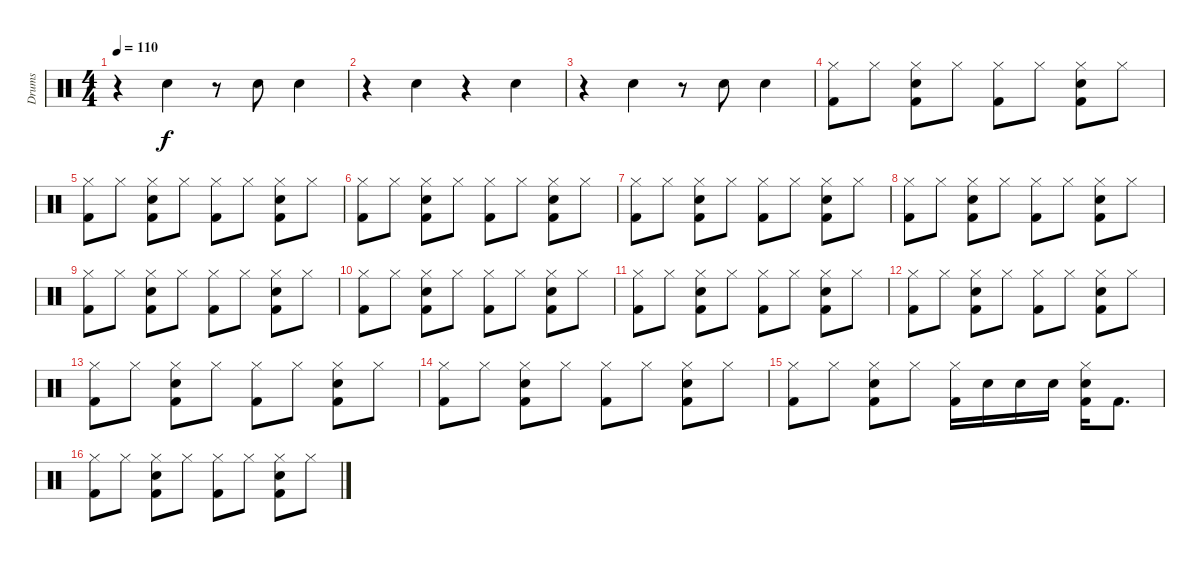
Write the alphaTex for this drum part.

\track ("Drums" "Drums") {instrument percussion}
\staff {score}
\articulation defaults
\ts (4 4)
\tempo 110
\clef neutral
\ks c
r.4{dy f} "Hand Clap (hit)".4 r.8 "Hand Clap (hit)".8 "Hand Clap (hit)".4 |
r.4 "Hand Clap (hit)".4 r.4 "Hand Clap (hit)".4 |
r.4 "Hand Clap (hit)".4 r.8 "Hand Clap (hit)".8 "Hand Clap (hit)".4 |
("Hi-Hat (closed)" "Kick (hit) 2").8 "Hi-Hat (closed)".8 ("Hi-Hat (closed)" "Snare (hit) 2" "Kick (hit) 2").8 "Hi-Hat (closed)".8 ("Hi-Hat (closed)" "Kick (hit) 2").8 "Hi-Hat (closed)".8 ("Hi-Hat (closed)" "Snare (hit) 2" "Kick (hit) 2").8 "Hi-Hat (closed)".8 |
("Hi-Hat (closed)" "Kick (hit) 2").8 "Hi-Hat (closed)".8 ("Hi-Hat (closed)" "Snare (hit) 2" "Kick (hit) 2").8 "Hi-Hat (closed)".8 ("Hi-Hat (closed)" "Kick (hit) 2").8 "Hi-Hat (closed)".8 ("Hi-Hat (closed)" "Snare (hit) 2" "Kick (hit) 2").8 "Hi-Hat (closed)".8 |
("Hi-Hat (closed)" "Kick (hit) 2").8 "Hi-Hat (closed)".8 ("Hi-Hat (closed)" "Snare (hit) 2" "Kick (hit) 2").8 "Hi-Hat (closed)".8 ("Hi-Hat (closed)" "Kick (hit) 2").8 "Hi-Hat (closed)".8 ("Hi-Hat (closed)" "Snare (hit) 2" "Kick (hit) 2").8 "Hi-Hat (closed)".8 |
("Hi-Hat (closed)" "Kick (hit) 2").8 "Hi-Hat (closed)".8 ("Hi-Hat (closed)" "Snare (hit) 2" "Kick (hit) 2").8 "Hi-Hat (closed)".8 ("Hi-Hat (closed)" "Kick (hit) 2").8 "Hi-Hat (closed)".8 ("Hi-Hat (closed)" "Snare (hit) 2" "Kick (hit) 2").8 "Hi-Hat (closed)".8 |
("Hi-Hat (closed)" "Kick (hit) 2").8 "Hi-Hat (closed)".8 ("Hi-Hat (closed)" "Snare (hit) 2" "Kick (hit) 2").8 "Hi-Hat (closed)".8 ("Hi-Hat (closed)" "Kick (hit) 2").8 "Hi-Hat (closed)".8 ("Hi-Hat (closed)" "Snare (hit) 2" "Kick (hit) 2").8 "Hi-Hat (closed)".8 |
("Hi-Hat (closed)" "Kick (hit) 2").8 "Hi-Hat (closed)".8 ("Hi-Hat (closed)" "Snare (hit) 2" "Kick (hit) 2").8 "Hi-Hat (closed)".8 ("Hi-Hat (closed)" "Kick (hit) 2").8 "Hi-Hat (closed)".8 ("Hi-Hat (closed)" "Snare (hit) 2" "Kick (hit) 2").8 "Hi-Hat (closed)".8 |
("Hi-Hat (closed)" "Kick (hit) 2").8 "Hi-Hat (closed)".8 ("Hi-Hat (closed)" "Snare (hit) 2" "Kick (hit) 2").8 "Hi-Hat (closed)".8 ("Hi-Hat (closed)" "Kick (hit) 2").8 "Hi-Hat (closed)".8 ("Hi-Hat (closed)" "Snare (hit) 2" "Kick (hit) 2").8 "Hi-Hat (closed)".8 |
("Hi-Hat (closed)" "Kick (hit) 2").8 "Hi-Hat (closed)".8 ("Hi-Hat (closed)" "Snare (hit) 2" "Kick (hit) 2").8 "Hi-Hat (closed)".8 ("Hi-Hat (closed)" "Kick (hit) 2").8 "Hi-Hat (closed)".8 ("Hi-Hat (closed)" "Snare (hit) 2" "Kick (hit) 2").8 "Hi-Hat (closed)".8 |
("Hi-Hat (closed)" "Kick (hit) 2").8 "Hi-Hat (closed)".8 ("Hi-Hat (closed)" "Snare (hit) 2" "Kick (hit) 2").8 "Hi-Hat (closed)".8 ("Hi-Hat (closed)" "Kick (hit) 2").8 "Hi-Hat (closed)".8 ("Hi-Hat (closed)" "Snare (hit) 2" "Kick (hit) 2").8 "Hi-Hat (closed)".8 |
("Hi-Hat (closed)" "Kick (hit) 2").8 "Hi-Hat (closed)".8 ("Hi-Hat (closed)" "Snare (hit) 2" "Kick (hit) 2").8 "Hi-Hat (closed)".8 ("Hi-Hat (closed)" "Kick (hit) 2").8 "Hi-Hat (closed)".8 ("Hi-Hat (closed)" "Snare (hit) 2" "Kick (hit) 2").8 "Hi-Hat (closed)".8 |
("Hi-Hat (closed)" "Kick (hit) 2").8 "Hi-Hat (closed)".8 ("Hi-Hat (closed)" "Snare (hit) 2" "Kick (hit) 2").8 "Hi-Hat (closed)".8 ("Hi-Hat (closed)" "Kick (hit) 2").8 "Hi-Hat (closed)".8 ("Hi-Hat (closed)" "Snare (hit) 2" "Kick (hit) 2").8 "Hi-Hat (closed)".8 |
("Hi-Hat (closed)" "Kick (hit) 2").8 "Hi-Hat (closed)".8 ("Hi-Hat (closed)" "Snare (hit) 2" "Kick (hit) 2").8 "Hi-Hat (closed)".8 ("Hi-Hat (closed)" "Kick (hit) 2").16 "Snare (hit) 2".16 "Snare (hit) 2".16 "Snare (hit) 2".16 ("Hi-Hat (closed)" "Snare (hit) 2" "Kick (hit) 2").16 "Kick (hit) 2".8{d} |
("Hi-Hat (closed)" "Kick (hit) 2").8 "Hi-Hat (closed)".8 ("Hi-Hat (closed)" "Snare (hit) 2" "Kick (hit) 2").8 "Hi-Hat (closed)".8 ("Hi-Hat (closed)" "Kick (hit) 2").8 "Hi-Hat (closed)".8 ("Hi-Hat (closed)" "Snare (hit) 2" "Kick (hit) 2").8 "Hi-Hat (closed)".8
